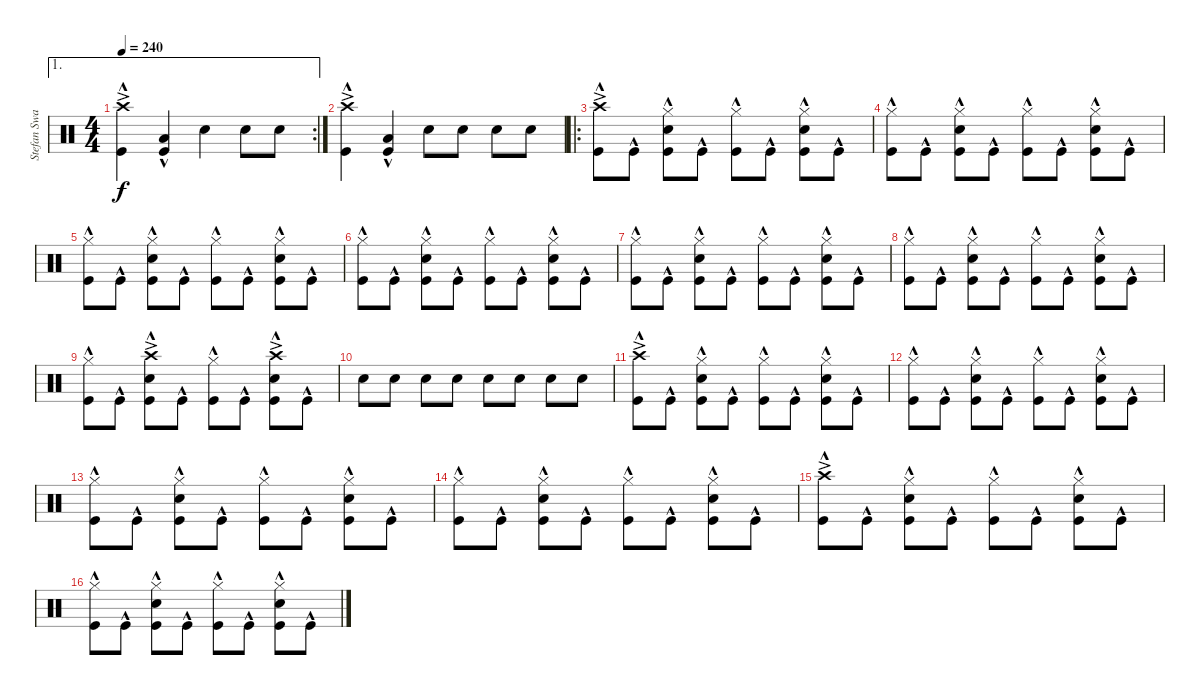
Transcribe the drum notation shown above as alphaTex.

\track ("Stefan Swarztmann" "Stefan Swa") {instrument percussion}
\staff {score}
\articulation defaults
\ae 1
\rc 2
\ts (4 4)
\tempo 240
\clef neutral
\ks c
("Crash high (hit)"{ac} "Kick (hit)"{hac}).4{dy f} ("Low Floor Tom (hit)"{hac} "Kick (hit)"{hac}).4 "Snare (hit) 2".4 "Snare (hit) 2".8 "Snare (hit) 2".8 |
("Crash high (hit)"{ac} "Kick (hit)"{hac}).4 ("Low Floor Tom (hit)"{hac} "Kick (hit)"{hac}).4 "Snare (hit) 2".8 "Snare (hit) 2".8 "Snare (hit) 2".8 "Snare (hit) 2".8 |
\ro
("Crash high (hit)"{ac} "Kick (hit)"{hac}).8 "Kick (hit)"{hac}.8 ("Hi-Hat (closed)" "Snare (hit) 2" "Kick (hit)"{hac}).8 "Kick (hit)"{hac}.8 ("Hi-Hat (closed)" "Kick (hit)"{hac}).8 "Kick (hit)"{hac}.8 ("Hi-Hat (closed)" "Snare (hit) 2" "Kick (hit)"{hac}).8 "Kick (hit)"{hac}.8 |
("Hi-Hat (closed)" "Kick (hit)"{hac}).8 "Kick (hit)"{hac}.8 ("Hi-Hat (closed)" "Snare (hit) 2" "Kick (hit)"{hac}).8 "Kick (hit)"{hac}.8 ("Hi-Hat (closed)" "Kick (hit)"{hac}).8 "Kick (hit)"{hac}.8 ("Hi-Hat (closed)" "Snare (hit) 2" "Kick (hit)"{hac}).8 "Kick (hit)"{hac}.8 |
("Hi-Hat (closed)" "Kick (hit)"{hac}).8 "Kick (hit)"{hac}.8 ("Hi-Hat (closed)" "Snare (hit) 2" "Kick (hit)"{hac}).8 "Kick (hit)"{hac}.8 ("Hi-Hat (closed)" "Kick (hit)"{hac}).8 "Kick (hit)"{hac}.8 ("Hi-Hat (closed)" "Snare (hit) 2" "Kick (hit)"{hac}).8 "Kick (hit)"{hac}.8 |
("Hi-Hat (closed)" "Kick (hit)"{hac}).8 "Kick (hit)"{hac}.8 ("Hi-Hat (closed)" "Snare (hit) 2" "Kick (hit)"{hac}).8 "Kick (hit)"{hac}.8 ("Hi-Hat (closed)" "Kick (hit)"{hac}).8 "Kick (hit)"{hac}.8 ("Hi-Hat (closed)" "Snare (hit) 2" "Kick (hit)"{hac}).8 "Kick (hit)"{hac}.8 |
("Hi-Hat (closed)" "Kick (hit)"{hac}).8 "Kick (hit)"{hac}.8 ("Hi-Hat (closed)" "Snare (hit) 2" "Kick (hit)"{hac}).8 "Kick (hit)"{hac}.8 ("Hi-Hat (closed)" "Kick (hit)"{hac}).8 "Kick (hit)"{hac}.8 ("Hi-Hat (closed)" "Snare (hit) 2" "Kick (hit)"{hac}).8 "Kick (hit)"{hac}.8 |
("Hi-Hat (closed)" "Kick (hit)"{hac}).8 "Kick (hit)"{hac}.8 ("Hi-Hat (closed)" "Snare (hit) 2" "Kick (hit)"{hac}).8 "Kick (hit)"{hac}.8 ("Hi-Hat (closed)" "Kick (hit)"{hac}).8 "Kick (hit)"{hac}.8 ("Hi-Hat (closed)" "Snare (hit) 2" "Kick (hit)"{hac}).8 "Kick (hit)"{hac}.8 |
("Hi-Hat (closed)" "Kick (hit)"{hac}).8 "Kick (hit)"{hac}.8 ("Crash high (hit)"{ac} "Snare (hit) 2" "Kick (hit)"{hac}).8 "Kick (hit)"{hac}.8 ("Hi-Hat (closed)" "Kick (hit)"{hac}).8 "Kick (hit)"{hac}.8 ("Crash high (hit)"{ac} "Snare (hit) 2" "Kick (hit)"{hac}).8 "Kick (hit)"{hac}.8 |
"Snare (hit) 2".8 "Snare (hit) 2".8 "Snare (hit) 2".8 "Snare (hit) 2".8 "Snare (hit) 2".8 "Snare (hit) 2".8 "Snare (hit) 2".8 "Snare (hit) 2".8 |
("Crash high (hit)"{ac} "Kick (hit)"{hac}).8 "Kick (hit)"{hac}.8 ("Hi-Hat (closed)" "Snare (hit) 2" "Kick (hit)"{hac}).8 "Kick (hit)"{hac}.8 ("Hi-Hat (closed)" "Kick (hit)"{hac}).8 "Kick (hit)"{hac}.8 ("Hi-Hat (closed)" "Snare (hit) 2" "Kick (hit)"{hac}).8 "Kick (hit)"{hac}.8 |
("Hi-Hat (closed)" "Kick (hit)"{hac}).8 "Kick (hit)"{hac}.8 ("Hi-Hat (closed)" "Snare (hit) 2" "Kick (hit)"{hac}).8 "Kick (hit)"{hac}.8 ("Hi-Hat (closed)" "Kick (hit)"{hac}).8 "Kick (hit)"{hac}.8 ("Hi-Hat (closed)" "Snare (hit) 2" "Kick (hit)"{hac}).8 "Kick (hit)"{hac}.8 |
("Hi-Hat (closed)" "Kick (hit)"{hac}).8 "Kick (hit)"{hac}.8 ("Hi-Hat (closed)" "Snare (hit) 2" "Kick (hit)"{hac}).8 "Kick (hit)"{hac}.8 ("Hi-Hat (closed)" "Kick (hit)"{hac}).8 "Kick (hit)"{hac}.8 ("Hi-Hat (closed)" "Snare (hit) 2" "Kick (hit)"{hac}).8 "Kick (hit)"{hac}.8 |
("Hi-Hat (closed)" "Kick (hit)"{hac}).8 "Kick (hit)"{hac}.8 ("Hi-Hat (closed)" "Snare (hit) 2" "Kick (hit)"{hac}).8 "Kick (hit)"{hac}.8 ("Hi-Hat (closed)" "Kick (hit)"{hac}).8 "Kick (hit)"{hac}.8 ("Hi-Hat (closed)" "Snare (hit) 2" "Kick (hit)"{hac}).8 "Kick (hit)"{hac}.8 |
("Crash high (hit)"{ac} "Kick (hit)"{hac}).8 "Kick (hit)"{hac}.8 ("Hi-Hat (closed)" "Snare (hit) 2" "Kick (hit)"{hac}).8 "Kick (hit)"{hac}.8 ("Hi-Hat (closed)" "Kick (hit)"{hac}).8 "Kick (hit)"{hac}.8 ("Hi-Hat (closed)" "Snare (hit) 2" "Kick (hit)"{hac}).8 "Kick (hit)"{hac}.8 |
("Hi-Hat (closed)" "Kick (hit)"{hac}).8 "Kick (hit)"{hac}.8 ("Hi-Hat (closed)" "Snare (hit) 2" "Kick (hit)"{hac}).8 "Kick (hit)"{hac}.8 ("Hi-Hat (closed)" "Kick (hit)"{hac}).8 "Kick (hit)"{hac}.8 ("Hi-Hat (closed)" "Snare (hit) 2" "Kick (hit)"{hac}).8 "Kick (hit)"{hac}.8
